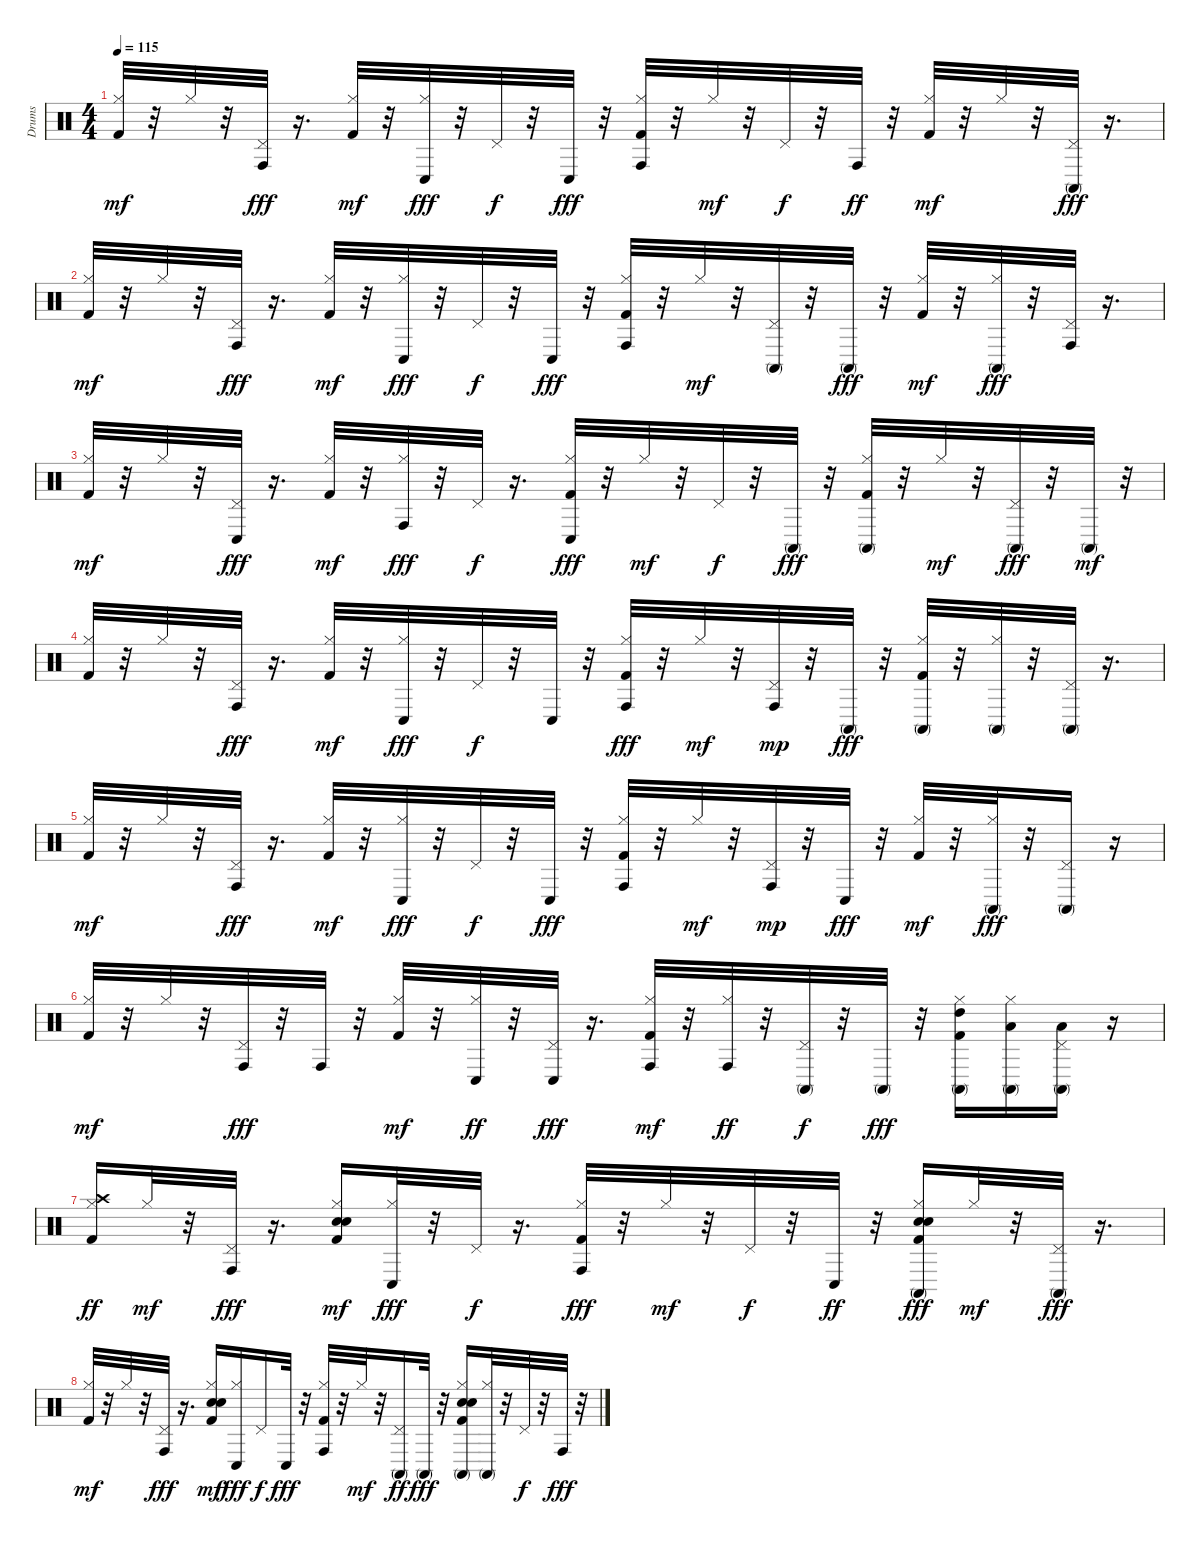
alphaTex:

\track ("Drums" "Drums") {instrument percussion}
\staff {score}
\articulation defaults
\ts (4 4)
\tempo 115
\clef neutral
\ks c
("Kick (hit) 2" "Hi-Hat (closed)").32{dy mf} r.32 "Hi-Hat (closed)".32 r.32 ("Pedal Hi-Hat (hit)" "Conga high (hit)").32{dy fff} r.16{d} ("Kick (hit) 2" "Hi-Hat (closed)").32{dy mf} r.32 ("Hi-Hat (closed)" "Conga low (hit)").32{dy fff} r.32 "Pedal Hi-Hat (hit)".32{dy f} r.32 "Conga low (hit)".32{dy fff} r.32 ("Kick (hit) 2" "Hi-Hat (closed)" "Conga high (hit)").32 r.32 "Hi-Hat (closed)".32{dy mf} r.32 "Pedal Hi-Hat (hit)".32{dy f} r.32 "Conga high (hit)".32{dy ff} r.32 ("Kick (hit) 2" "Hi-Hat (closed)").32{dy mf} r.32 "Hi-Hat (closed)".32 r.32 ("Pedal Hi-Hat (hit)" "Conga high (mute)").32{dy fff} r.16{d} |
("Kick (hit) 2" "Hi-Hat (closed)").32{dy mf} r.32 "Hi-Hat (closed)".32 r.32 ("Pedal Hi-Hat (hit)" "Conga high (hit)").32{dy fff} r.16{d} ("Kick (hit) 2" "Hi-Hat (closed)").32{dy mf} r.32 ("Hi-Hat (closed)" "Conga low (hit)").32{dy fff} r.32 "Pedal Hi-Hat (hit)".32{dy f} r.32 "Conga low (hit)".32{dy fff} r.32 ("Kick (hit) 2" "Hi-Hat (closed)" "Conga high (hit)").32 r.32 "Hi-Hat (closed)".32{dy mf} r.32 ("Pedal Hi-Hat (hit)" "Conga high (mute)").32 r.32 "Conga high (mute)".32{dy fff} r.32 ("Kick (hit) 2" "Hi-Hat (closed)").32{dy mf} r.32 ("Hi-Hat (closed)" "Conga high (mute)").32{dy fff} r.32 ("Pedal Hi-Hat (hit)" "Conga high (hit)").32 r.16{d} |
("Kick (hit) 2" "Hi-Hat (closed)").32{dy mf} r.32 "Hi-Hat (closed)".32 r.32 ("Pedal Hi-Hat (hit)" "Conga low (hit)").32{dy fff} r.16{d} ("Kick (hit) 2" "Hi-Hat (closed)").32{dy mf} r.32 ("Hi-Hat (closed)" "Conga high (hit)").32{dy fff} r.32 "Pedal Hi-Hat (hit)".32{dy f} r.16{d} ("Kick (hit) 2" "Hi-Hat (closed)" "Conga low (hit)").32{dy fff} r.32 "Hi-Hat (closed)".32{dy mf} r.32 "Pedal Hi-Hat (hit)".32{dy f} r.32 "Conga high (mute)".32{dy fff} r.32 ("Kick (hit) 2" "Hi-Hat (closed)" "Conga high (mute)").32 r.32 "Hi-Hat (closed)".32{dy mf} r.32 ("Pedal Hi-Hat (hit)" "Conga high (mute)").32{dy fff} r.32 "Conga high (mute)".32{dy mf} r.32 |
("Kick (hit) 2" "Hi-Hat (closed)").32 r.32 "Hi-Hat (closed)".32 r.32 ("Pedal Hi-Hat (hit)" "Conga high (hit)").32{dy fff} r.16{d} ("Kick (hit) 2" "Hi-Hat (closed)").32{dy mf} r.32 ("Hi-Hat (closed)" "Conga low (hit)").32{dy fff} r.32 "Pedal Hi-Hat (hit)".32{dy f} r.32 "Conga low (hit)".32 r.32 ("Kick (hit) 2" "Hi-Hat (closed)" "Conga high (hit)").32{dy fff} r.32 "Hi-Hat (closed)".32{dy mf} r.32 ("Pedal Hi-Hat (hit)" "Conga high (hit)").32{dy mp} r.32 "Conga high (mute)".32{dy fff} r.32 ("Kick (hit) 2" "Hi-Hat (closed)" "Conga high (mute)").32 r.32 ("Hi-Hat (closed)" "Conga high (mute)").32 r.32 ("Pedal Hi-Hat (hit)" "Conga high (mute)").32 r.16{d} |
("Kick (hit) 2" "Hi-Hat (closed)").32{dy mf} r.32 "Hi-Hat (closed)".32 r.32 ("Pedal Hi-Hat (hit)" "Conga high (hit)").32{dy fff} r.16{d} ("Kick (hit) 2" "Hi-Hat (closed)").32{dy mf} r.32 ("Hi-Hat (closed)" "Conga low (hit)").32{dy fff} r.32 "Pedal Hi-Hat (hit)".32{dy f} r.32 "Conga low (hit)".32{dy fff} r.32 ("Kick (hit) 2" "Hi-Hat (closed)" "Conga high (hit)").32 r.32 "Hi-Hat (closed)".32{dy mf} r.32 ("Pedal Hi-Hat (hit)" "Conga high (hit)").32{dy mp} r.32 "Conga low (hit)".32{dy fff} r.32 ("Kick (hit) 2" "Hi-Hat (closed)").32{dy mf} r.32 ("Hi-Hat (closed)" "Conga high (mute)").32{dy fff} r.32 ("Pedal Hi-Hat (hit)" "Conga high (mute)").16 r.16 |
("Kick (hit) 2" "Hi-Hat (closed)").32{dy mf} r.32 "Hi-Hat (closed)".32 r.32 ("Pedal Hi-Hat (hit)" "Conga high (hit)").32{dy fff} r.32 "Conga high (hit)".32 r.32 ("Kick (hit) 2" "Hi-Hat (closed)").32{dy mf} r.32 ("Hi-Hat (closed)" "Conga low (hit)").32{dy ff} r.32 ("Pedal Hi-Hat (hit)" "Conga low (hit)").32{dy fff} r.16{d} ("Kick (hit) 2" "Hi-Hat (closed)" "Conga high (hit)").32{dy mf} r.32 ("Hi-Hat (closed)" "Conga high (hit)").32{dy ff} r.32 ("Pedal Hi-Hat (hit)" "Conga high (mute)").32{dy f} r.32 "Conga high (mute)".32{dy fff} r.32 ("Kick (hit) 2" "Hi-Hat (closed)" "High Tom (hit)" "Conga high (mute)").16 ("Hi-Hat (closed)" "Low Tom (hit)" "Conga high (mute)").16 ("Pedal Hi-Hat (hit)" "Low Floor Tom (hit)" "Conga high (mute)").16 r.16 |
("Kick (hit) 2" "Hi-Hat (closed)" "Crash high (hit)").16{dy ff} "Hi-Hat (closed)".32{dy mf} r.32 ("Pedal Hi-Hat (hit)" "Conga high (hit)").32{dy fff} r.16{d} ("Kick (hit) 2" "Snare (hit) 2" "Hand Clap (hit)" "Hi-Hat (closed)").16{dy mf} ("Hi-Hat (closed)" "Conga low (hit)").32{dy fff} r.32 "Pedal Hi-Hat (hit)".32{dy f} r.16{d} ("Kick (hit) 2" "Hi-Hat (closed)" "Conga high (hit)").32{dy fff} r.32 "Hi-Hat (closed)".32{dy mf} r.32 "Pedal Hi-Hat (hit)".32{dy f} r.32 "Conga low (hit)".32{dy ff} r.32 ("Kick (hit) 2" "Snare (hit) 2" "Hand Clap (hit)" "Hi-Hat (closed)" "Conga high (mute)").16{dy fff} "Hi-Hat (closed)".32{dy mf} r.32 ("Pedal Hi-Hat (hit)" "Conga high (mute)").32{dy fff} r.16{d} |
("Kick (hit) 2" "Hi-Hat (closed)").32{dy mf} r.32 "Hi-Hat (closed)".32 r.32 ("Pedal Hi-Hat (hit)" "Conga high (hit)").32{dy fff} r.16{d} ("Kick (hit) 2" "Snare (hit) 2" "Hand Clap (hit)" "Hi-Hat (closed)").16{dy mf} ("Hi-Hat (closed)" "Conga low (hit)").16{dy fff} "Pedal Hi-Hat (hit)".16{dy f} "Conga low (hit)".32{dy fff} r.32 ("Kick (hit) 2" "Hi-Hat (closed)" "Conga high (hit)").32 r.32 "Hi-Hat (closed)".32{dy mf} r.32 ("Pedal Hi-Hat (hit)" "Conga high (mute)").16{dy ff} "Conga high (mute)".32{dy fff} r.32 ("Kick (hit) 2" "Snare (hit) 2" "Hand Clap (hit)" "Hi-Hat (closed)" "Conga high (mute)").16 ("Hi-Hat (closed)" "Conga high (mute)").32 r.32 "Pedal Hi-Hat (hit)".32{dy f} r.32 "Conga high (hit)".32{dy fff} r.32
